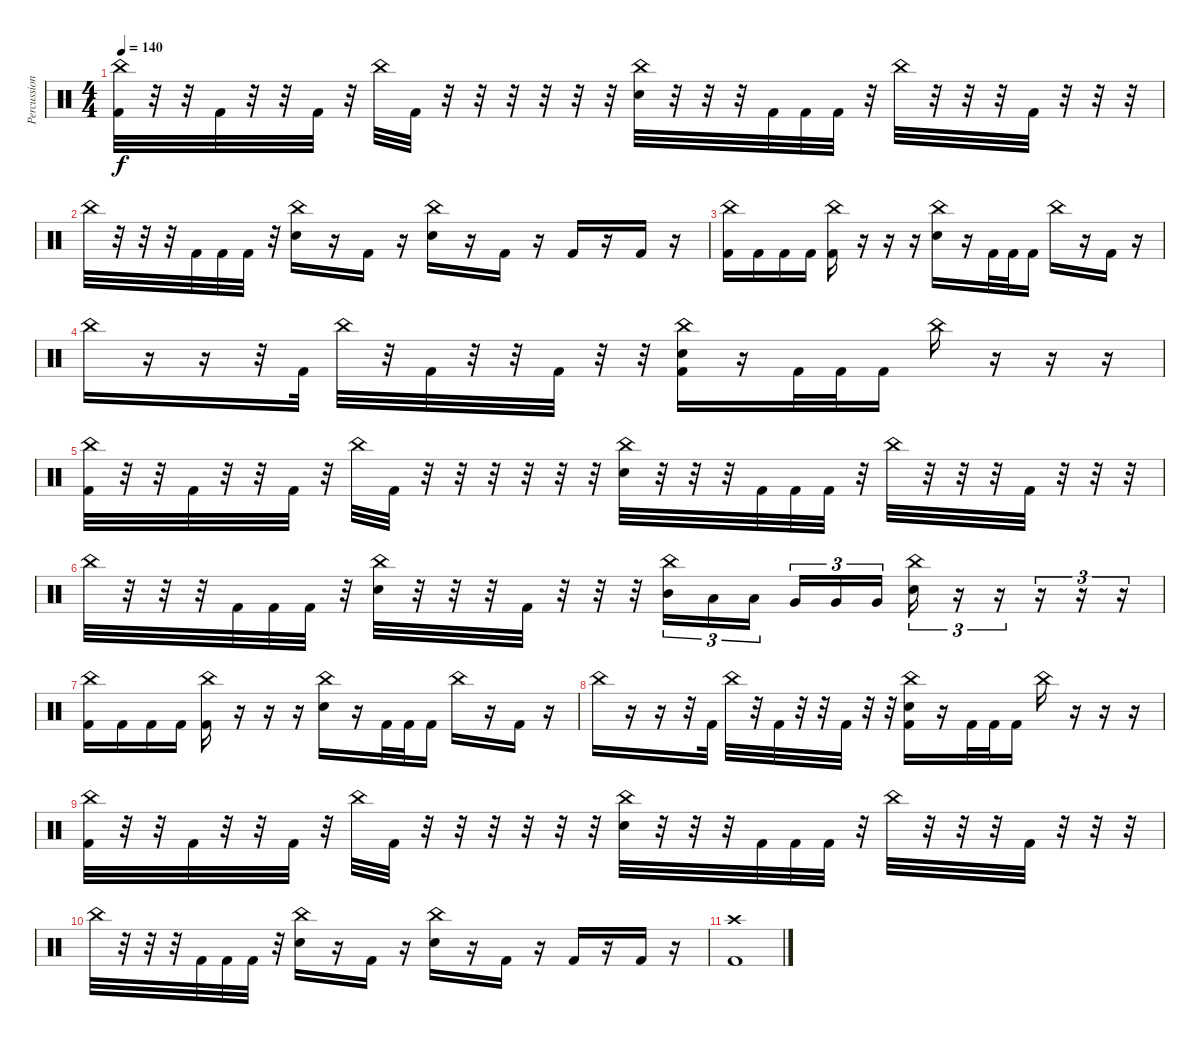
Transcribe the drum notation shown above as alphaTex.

\track ("Percussion" "Percussion") {instrument percussion}
\staff {score}
\articulation defaults
\ts (4 4)
\tempo 140
\clef neutral
\ks c
("China (hit)" "Kick (hit) 2").32{dy f} r.32 r.32 "Kick (hit) 2".32 r.32 r.32 "Kick (hit) 2".32 r.32 "China (hit)".32 "Kick (hit) 2".32 r.32 r.32 r.32 r.32 r.32 r.32 ("China (hit)" "Snare (hit) 2").32 r.32 r.32 r.32 "Kick (hit) 2".32 "Kick (hit) 2".32 "Kick (hit) 2".32 r.32 "China (hit)".32 r.32 r.32 r.32 "Kick (hit) 2".32 r.32 r.32 r.32 |
"China (hit)".32 r.32 r.32 r.32 "Kick (hit) 2".32 "Kick (hit) 2".32 "Kick (hit) 2".32 r.32 ("China (hit)" "Snare (hit) 2").16 r.16 "Kick (hit) 2".16 r.16 ("China (hit)" "Snare (hit) 2").16 r.16 "Kick (hit) 2".16 r.16 "Kick (hit) 2".16 r.16 "Kick (hit) 2".16 r.16 |
("China (hit)" "Kick (hit) 2").16 "Kick (hit) 2".16 "Kick (hit) 2".16 "Kick (hit) 2".16 ("China (hit)" "Kick (hit) 2").16 r.16 r.16 r.16 ("China (hit)" "Snare (hit) 2").16 r.16 "Kick (hit) 2".32 "Kick (hit) 2".32 "Kick (hit) 2".16 "China (hit)".16 r.16 "Kick (hit) 2".16 r.16 |
"China (hit)".16 r.16 r.16 r.32 "Kick (hit) 2".32 "China (hit)".32 r.32 "Kick (hit) 2".32 r.32 r.32 "Kick (hit) 2".32 r.32 r.32 ("China (hit)" "Snare (hit) 2" "Kick (hit) 2").16 r.16 "Kick (hit) 2".32 "Kick (hit) 2".32 "Kick (hit) 2".16 "China (hit)".16 r.16 r.16 r.16 |
("China (hit)" "Kick (hit) 2").32 r.32 r.32 "Kick (hit) 2".32 r.32 r.32 "Kick (hit) 2".32 r.32 "China (hit)".32 "Kick (hit) 2".32 r.32 r.32 r.32 r.32 r.32 r.32 ("China (hit)" "Snare (hit) 2").32 r.32 r.32 r.32 "Kick (hit) 2".32 "Kick (hit) 2".32 "Kick (hit) 2".32 r.32 "China (hit)".32 r.32 r.32 r.32 "Kick (hit) 2".32 r.32 r.32 r.32 |
"China (hit)".32 r.32 r.32 r.32 "Kick (hit) 2".32 "Kick (hit) 2".32 "Kick (hit) 2".32 r.32 ("China (hit)" "Snare (hit) 2").32 r.32 r.32 r.32 "Kick (hit) 2".32 r.32 r.32 r.32 ("China (hit)" "Mid Tom (hit)").16{tu (3 2)} "Low Tom (hit)".16{tu (3 2)} "Low Tom (hit)".16{tu (3 2) beam splitsecondary} "Very Low Tom (hit)".16{tu (3 2)} "Very Low Tom (hit)".16{tu (3 2)} "Very Low Tom (hit)".16{tu (3 2)} ("China (hit)" "Snare (hit) 2").16{tu (3 2)} r.16{tu (3 2)} r.16{tu (3 2)} r.16{tu (3 2)} r.16{tu (3 2)} r.16{tu (3 2)} |
("China (hit)" "Kick (hit) 2").16 "Kick (hit) 2".16 "Kick (hit) 2".16 "Kick (hit) 2".16 ("China (hit)" "Kick (hit) 2").16 r.16 r.16 r.16 ("China (hit)" "Snare (hit) 2").16 r.16 "Kick (hit) 2".32 "Kick (hit) 2".32 "Kick (hit) 2".16 "China (hit)".16 r.16 "Kick (hit) 2".16 r.16 |
"China (hit)".16 r.16 r.16 r.32 "Kick (hit) 2".32 "China (hit)".32 r.32 "Kick (hit) 2".32 r.32 r.32 "Kick (hit) 2".32 r.32 r.32 ("China (hit)" "Snare (hit) 2" "Kick (hit) 2").16 r.16 "Kick (hit) 2".32 "Kick (hit) 2".32 "Kick (hit) 2".16 "China (hit)".16 r.16 r.16 r.16 |
("China (hit)" "Kick (hit) 2").32 r.32 r.32 "Kick (hit) 2".32 r.32 r.32 "Kick (hit) 2".32 r.32 "China (hit)".32 "Kick (hit) 2".32 r.32 r.32 r.32 r.32 r.32 r.32 ("China (hit)" "Snare (hit) 2").32 r.32 r.32 r.32 "Kick (hit) 2".32 "Kick (hit) 2".32 "Kick (hit) 2".32 r.32 "China (hit)".32 r.32 r.32 r.32 "Kick (hit) 2".32 r.32 r.32 r.32 |
"China (hit)".32 r.32 r.32 r.32 "Kick (hit) 2".32 "Kick (hit) 2".32 "Kick (hit) 2".32 r.32 ("China (hit)" "Snare (hit) 2").16 r.16 "Kick (hit) 2".16 r.16 ("China (hit)" "Snare (hit) 2").16 r.16 "Kick (hit) 2".16 r.16 "Kick (hit) 2".16 r.16 "Kick (hit) 2".16 r.16 |
("Crash high (hit)" "Kick (hit) 2").1
